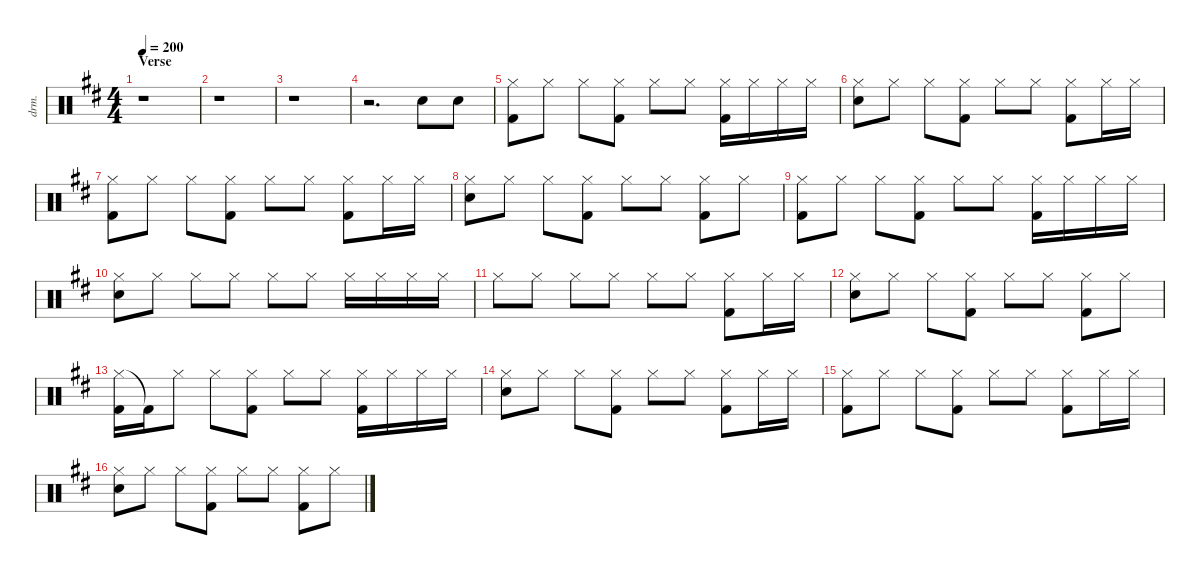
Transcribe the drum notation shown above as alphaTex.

\defaultSystemsLayout 4
\hideDynamics
\bracketExtendMode nobrackets
\otherSystemsTrackNameOrientation horizontal
\track ("Drums" "drm.") {instrument percussion}
\staff {score}
\articulation defaults
\ts (4 4)
\section ("" "Verse")
\tempo 200
\clef neutral
\ks d
r.1{dy ff beam Down} |
r.1{beam Down} |
r.1{beam Down} |
r.2{d beam Down} "Snare (hit) 2"{acc forcenatural}.8{beam Down} "Snare (hit) 2"{acc forcenatural}.8{beam Down} |
("Kick (hit) 2"{acc forcenatural} "Hi-Hat (closed)"{acc #}).8{beam Down} "Hi-Hat (closed)"{acc #}.8{beam Down} "Hi-Hat (closed)"{acc #}.8{beam Down} ("Kick (hit) 2"{acc forcenatural} "Hi-Hat (closed)"{acc #}).8{beam Down} "Hi-Hat (closed)"{acc #}.8{beam Down} "Hi-Hat (closed)"{acc #}.8{beam Down} ("Kick (hit) 2"{acc forcenatural} "Hi-Hat (closed)"{acc #}).16{beam Down} "Hi-Hat (closed)"{acc #}.16{beam Down} "Hi-Hat (closed)"{acc #}.16{beam Down} "Hi-Hat (closed)"{acc #}.16{beam Down} |
("Snare (hit) 2"{acc forcenatural} "Hi-Hat (closed)"{acc #}).8{beam Down} "Hi-Hat (closed)"{acc #}.8{beam Down} "Hi-Hat (closed)"{acc #}.8{beam Down} ("Hi-Hat (closed)"{acc #} "Kick (hit) 2"{acc forcenatural}).8{beam Down} "Hi-Hat (closed)"{acc #}.8{beam Down} "Hi-Hat (closed)"{acc #}.8{beam Down} ("Hi-Hat (closed)"{acc #} "Kick (hit) 2"{acc forcenatural}).8{beam Down} "Hi-Hat (closed)"{acc #}.16{beam Down} "Hi-Hat (closed)"{acc #}.16{beam Down} |
("Kick (hit) 2"{acc forcenatural} "Hi-Hat (closed)"{acc #}).8{beam Down} "Hi-Hat (closed)"{acc #}.8{beam Down} "Hi-Hat (closed)"{acc #}.8{beam Down} ("Kick (hit) 2"{acc forcenatural} "Hi-Hat (closed)"{acc #}).8{beam Down} "Hi-Hat (closed)"{acc #}.8{beam Down} "Hi-Hat (closed)"{acc #}.8{beam Down} ("Hi-Hat (closed)"{acc #} "Kick (hit) 2"{acc forcenatural}).8{beam Down} "Hi-Hat (closed)"{acc #}.16{beam Down} "Hi-Hat (closed)"{acc #}.16{beam Down} |
("Snare (hit) 2"{acc forcenatural} "Hi-Hat (closed)"{acc #}).8{beam Down} "Hi-Hat (closed)"{acc #}.8{beam Down} "Hi-Hat (closed)"{acc #}.8{beam Down} ("Kick (hit) 2"{acc forcenatural} "Hi-Hat (closed)"{acc #}).8{beam Down} "Hi-Hat (closed)"{acc #}.8{beam Down} "Hi-Hat (closed)"{acc #}.8{beam Down} ("Kick (hit) 2"{acc forcenatural} "Hi-Hat (closed)"{acc #}).8{beam Down} "Hi-Hat (closed)"{acc #}.8{beam Down} |
("Kick (hit) 2"{acc forcenatural} "Hi-Hat (closed)"{acc #}).8{beam Down} "Hi-Hat (closed)"{acc #}.8{beam Down} "Hi-Hat (closed)"{acc #}.8{beam Down} ("Kick (hit) 2"{acc forcenatural} "Hi-Hat (closed)"{acc #}).8{beam Down} "Hi-Hat (closed)"{acc #}.8{beam Down} "Hi-Hat (closed)"{acc #}.8{beam Down} ("Kick (hit) 2"{acc forcenatural} "Hi-Hat (closed)"{acc #}).16{beam Down} "Hi-Hat (closed)"{acc #}.16{beam Down} "Hi-Hat (closed)"{acc #}.16{beam Down} "Hi-Hat (closed)"{acc #}.16{beam Down} |
("Snare (hit) 2"{acc forcenatural} "Hi-Hat (closed)"{acc #}).8{beam Down} "Hi-Hat (closed)"{acc #}.8{beam Down} "Hi-Hat (closed)"{acc #}.8{beam Down} "Hi-Hat (closed)"{acc #}.8{beam Down} "Hi-Hat (closed)"{acc #}.8{beam Down} "Hi-Hat (closed)"{acc #}.8{beam Down} "Hi-Hat (closed)"{acc #}.16{beam Down} "Hi-Hat (closed)"{acc #}.16{beam Down} "Hi-Hat (closed)"{acc #}.16{beam Down} "Hi-Hat (closed)"{acc #}.16{beam Down} |
"Hi-Hat (closed)"{acc #}.8{beam Down} "Hi-Hat (closed)"{acc #}.8{beam Down} "Hi-Hat (closed)"{acc #}.8{beam Down} "Hi-Hat (closed)"{acc #}.8{beam Down} "Hi-Hat (closed)"{acc #}.8{beam Down} "Hi-Hat (closed)"{acc #}.8{beam Down} ("Hi-Hat (closed)"{acc #} "Kick (hit) 2"{acc forcenatural}).8{beam Down} "Hi-Hat (closed)"{acc #}.16{beam Down} "Hi-Hat (closed)"{acc #}.16{beam Down} |
("Snare (hit) 2"{acc forcenatural} "Hi-Hat (closed)"{acc #}).8{beam Down} "Hi-Hat (closed)"{acc #}.8{beam Down} "Hi-Hat (closed)"{acc #}.8{beam Down} ("Kick (hit) 2"{acc forcenatural} "Hi-Hat (closed)"{acc #}).8{beam Down} "Hi-Hat (closed)"{acc #}.8{beam Down} "Hi-Hat (closed)"{acc #}.8{beam Down} ("Kick (hit) 2"{acc forcenatural} "Hi-Hat (closed)"{acc #}).8{beam Down} "Hi-Hat (closed)"{acc #}.8{beam Down} |
("Hi-Hat (closed)"{acc #} "Kick (hit) 2"{acc forcenatural}).16{beam Down} "Kick (hit) 2"{t acc forcenatural}.16{beam Down} "Hi-Hat (closed)"{acc #}.8{beam Down} "Hi-Hat (closed)"{acc #}.8{beam Down} ("Kick (hit) 2"{acc forcenatural} "Hi-Hat (closed)"{acc #}).8{beam Down} "Hi-Hat (closed)"{acc #}.8{beam Down} "Hi-Hat (closed)"{acc #}.8{beam Down} ("Kick (hit) 2"{acc forcenatural} "Hi-Hat (closed)"{acc #}).16{beam Down} "Hi-Hat (closed)"{acc #}.16{beam Down} "Hi-Hat (closed)"{acc #}.16{beam Down} "Hi-Hat (closed)"{acc #}.16{beam Down} |
("Snare (hit) 2"{acc forcenatural} "Hi-Hat (closed)"{acc #}).8{beam Down} "Hi-Hat (closed)"{acc #}.8{beam Down} "Hi-Hat (closed)"{acc #}.8{beam Down} ("Hi-Hat (closed)"{acc #} "Kick (hit) 2"{acc forcenatural}).8{beam Down} "Hi-Hat (closed)"{acc #}.8{beam Down} "Hi-Hat (closed)"{acc #}.8{beam Down} ("Hi-Hat (closed)"{acc #} "Kick (hit) 2"{acc forcenatural}).8{beam Down} "Hi-Hat (closed)"{acc #}.16{beam Down} "Hi-Hat (closed)"{acc #}.16{beam Down} |
("Kick (hit) 2"{acc forcenatural} "Hi-Hat (closed)"{acc #}).8{beam Down} "Hi-Hat (closed)"{acc #}.8{beam Down} "Hi-Hat (closed)"{acc #}.8{beam Down} ("Kick (hit) 2"{acc forcenatural} "Hi-Hat (closed)"{acc #}).8{beam Down} "Hi-Hat (closed)"{acc #}.8{beam Down} "Hi-Hat (closed)"{acc #}.8{beam Down} ("Hi-Hat (closed)"{acc #} "Kick (hit) 2"{acc forcenatural}).8{beam Down} "Hi-Hat (closed)"{acc #}.16{beam Down} "Hi-Hat (closed)"{acc #}.16{beam Down} |
("Snare (hit) 2"{acc forcenatural} "Hi-Hat (closed)"{acc #}).8{beam Down} "Hi-Hat (closed)"{acc #}.8{beam Down} "Hi-Hat (closed)"{acc #}.8{beam Down} ("Kick (hit) 2"{acc forcenatural} "Hi-Hat (closed)"{acc #}).8{beam Down} "Hi-Hat (closed)"{acc #}.8{beam Down} "Hi-Hat (closed)"{acc #}.8{beam Down} ("Kick (hit) 2"{acc forcenatural} "Hi-Hat (closed)"{acc #}).8{beam Down} "Hi-Hat (closed)"{acc #}.8{beam Down}
